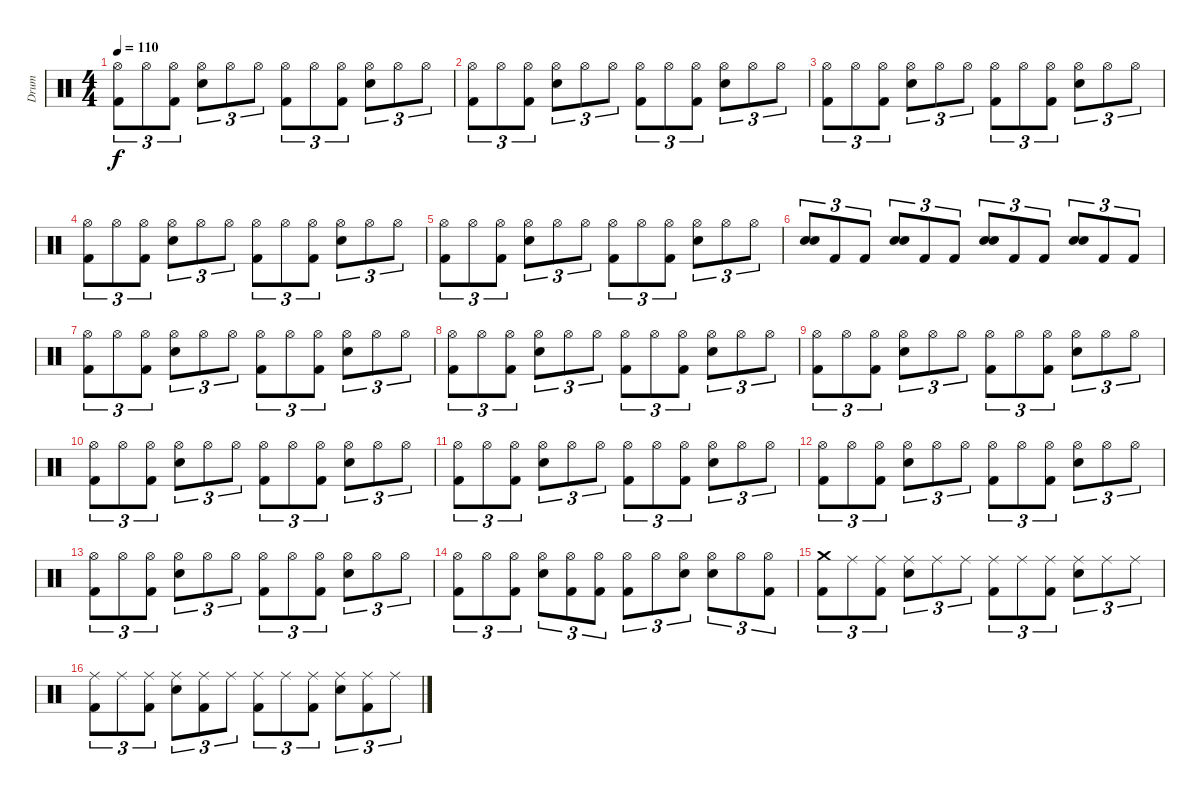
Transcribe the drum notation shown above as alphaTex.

\track ("Drum" "Drum") {instrument percussion}
\staff {score}
\articulation defaults
\ts (4 4)
\tempo 110
\clef neutral
\ks c
("Hi-Hat (open)" "Kick (hit) 2").8{tu (3 2) dy f} "Hi-Hat (open)".8{tu (3 2)} ("Hi-Hat (open)" "Kick (hit) 2").8{tu (3 2)} ("Hi-Hat (open)" "Electric Snare (hit)").8{tu (3 2)} "Hi-Hat (open)".8{tu (3 2)} "Hi-Hat (open)".8{tu (3 2)} ("Hi-Hat (open)" "Kick (hit) 2").8{tu (3 2)} "Hi-Hat (open)".8{tu (3 2)} ("Hi-Hat (open)" "Kick (hit) 2").8{tu (3 2)} ("Hi-Hat (open)" "Electric Snare (hit)").8{tu (3 2)} "Hi-Hat (open)".8{tu (3 2)} "Hi-Hat (open)".8{tu (3 2)} |
("Hi-Hat (open)" "Kick (hit) 2").8{tu (3 2)} "Hi-Hat (open)".8{tu (3 2)} ("Hi-Hat (open)" "Kick (hit) 2").8{tu (3 2)} ("Hi-Hat (open)" "Electric Snare (hit)").8{tu (3 2)} "Hi-Hat (open)".8{tu (3 2)} "Hi-Hat (open)".8{tu (3 2)} ("Hi-Hat (open)" "Kick (hit) 2").8{tu (3 2)} "Hi-Hat (open)".8{tu (3 2)} ("Hi-Hat (open)" "Kick (hit) 2").8{tu (3 2)} ("Hi-Hat (open)" "Electric Snare (hit)").8{tu (3 2)} "Hi-Hat (open)".8{tu (3 2)} "Hi-Hat (open)".8{tu (3 2)} |
("Hi-Hat (open)" "Kick (hit) 2").8{tu (3 2)} "Hi-Hat (open)".8{tu (3 2)} ("Hi-Hat (open)" "Kick (hit) 2").8{tu (3 2)} ("Hi-Hat (open)" "Electric Snare (hit)").8{tu (3 2)} "Hi-Hat (open)".8{tu (3 2)} "Hi-Hat (open)".8{tu (3 2)} ("Hi-Hat (open)" "Kick (hit) 2").8{tu (3 2)} "Hi-Hat (open)".8{tu (3 2)} ("Hi-Hat (open)" "Kick (hit) 2").8{tu (3 2)} ("Hi-Hat (open)" "Electric Snare (hit)").8{tu (3 2)} "Hi-Hat (open)".8{tu (3 2)} "Hi-Hat (open)".8{tu (3 2)} |
("Hi-Hat (open)" "Kick (hit) 2").8{tu (3 2)} "Hi-Hat (open)".8{tu (3 2)} ("Hi-Hat (open)" "Kick (hit) 2").8{tu (3 2)} ("Hi-Hat (open)" "Electric Snare (hit)").8{tu (3 2)} "Hi-Hat (open)".8{tu (3 2)} "Hi-Hat (open)".8{tu (3 2)} ("Hi-Hat (open)" "Kick (hit) 2").8{tu (3 2)} "Hi-Hat (open)".8{tu (3 2)} ("Hi-Hat (open)" "Kick (hit) 2").8{tu (3 2)} ("Hi-Hat (open)" "Electric Snare (hit)").8{tu (3 2)} "Hi-Hat (open)".8{tu (3 2)} "Hi-Hat (open)".8{tu (3 2)} |
("Hi-Hat (open)" "Kick (hit) 2").8{tu (3 2)} "Hi-Hat (open)".8{tu (3 2)} ("Hi-Hat (open)" "Kick (hit) 2").8{tu (3 2)} ("Hi-Hat (open)" "Electric Snare (hit)").8{tu (3 2)} "Hi-Hat (open)".8{tu (3 2)} "Hi-Hat (open)".8{tu (3 2)} ("Hi-Hat (open)" "Kick (hit) 2").8{tu (3 2)} "Hi-Hat (open)".8{tu (3 2)} ("Hi-Hat (open)" "Kick (hit) 2").8{tu (3 2)} ("Hi-Hat (open)" "Electric Snare (hit)").8{tu (3 2)} "Hi-Hat (open)".8{tu (3 2)} "Hi-Hat (open)".8{tu (3 2)} |
("Electric Snare (hit)" "Electric Snare (hit)").8{tu (3 2) bd 240} "Kick (hit) 2".8{tu (3 2)} "Kick (hit) 2".8{tu (3 2)} ("Electric Snare (hit)" "Electric Snare (hit)").8{tu (3 2) bd 240} "Kick (hit) 2".8{tu (3 2)} "Kick (hit) 2".8{tu (3 2)} ("Electric Snare (hit)" "Electric Snare (hit)").8{tu (3 2) bd 240} "Kick (hit) 2".8{tu (3 2)} "Kick (hit) 2".8{tu (3 2)} ("Electric Snare (hit)" "Electric Snare (hit)").8{tu (3 2) bd 240} "Kick (hit) 2".8{tu (3 2)} "Kick (hit) 2".8{tu (3 2)} |
("Hi-Hat (open)" "Kick (hit) 2").8{tu (3 2)} "Hi-Hat (open)".8{tu (3 2)} ("Hi-Hat (open)" "Kick (hit) 2").8{tu (3 2)} ("Hi-Hat (open)" "Electric Snare (hit)").8{tu (3 2)} "Hi-Hat (open)".8{tu (3 2)} "Hi-Hat (open)".8{tu (3 2)} ("Hi-Hat (open)" "Kick (hit) 2").8{tu (3 2)} "Hi-Hat (open)".8{tu (3 2)} ("Hi-Hat (open)" "Kick (hit) 2").8{tu (3 2)} ("Hi-Hat (open)" "Electric Snare (hit)").8{tu (3 2)} "Hi-Hat (open)".8{tu (3 2)} "Hi-Hat (open)".8{tu (3 2)} |
("Hi-Hat (open)" "Kick (hit) 2").8{tu (3 2)} "Hi-Hat (open)".8{tu (3 2)} ("Hi-Hat (open)" "Kick (hit) 2").8{tu (3 2)} ("Hi-Hat (open)" "Electric Snare (hit)").8{tu (3 2)} "Hi-Hat (open)".8{tu (3 2)} "Hi-Hat (open)".8{tu (3 2)} ("Hi-Hat (open)" "Kick (hit) 2").8{tu (3 2)} "Hi-Hat (open)".8{tu (3 2)} ("Hi-Hat (open)" "Kick (hit) 2").8{tu (3 2)} ("Hi-Hat (open)" "Electric Snare (hit)").8{tu (3 2)} "Hi-Hat (open)".8{tu (3 2)} "Hi-Hat (open)".8{tu (3 2)} |
("Hi-Hat (open)" "Kick (hit) 2").8{tu (3 2)} "Hi-Hat (open)".8{tu (3 2)} ("Hi-Hat (open)" "Kick (hit) 2").8{tu (3 2)} ("Hi-Hat (open)" "Electric Snare (hit)").8{tu (3 2)} "Hi-Hat (open)".8{tu (3 2)} "Hi-Hat (open)".8{tu (3 2)} ("Hi-Hat (open)" "Kick (hit) 2").8{tu (3 2)} "Hi-Hat (open)".8{tu (3 2)} ("Hi-Hat (open)" "Kick (hit) 2").8{tu (3 2)} ("Hi-Hat (open)" "Electric Snare (hit)").8{tu (3 2)} "Hi-Hat (open)".8{tu (3 2)} "Hi-Hat (open)".8{tu (3 2)} |
("Hi-Hat (open)" "Kick (hit) 2").8{tu (3 2)} "Hi-Hat (open)".8{tu (3 2)} ("Hi-Hat (open)" "Kick (hit) 2").8{tu (3 2)} ("Hi-Hat (open)" "Electric Snare (hit)").8{tu (3 2)} "Hi-Hat (open)".8{tu (3 2)} "Hi-Hat (open)".8{tu (3 2)} ("Hi-Hat (open)" "Kick (hit) 2").8{tu (3 2)} "Hi-Hat (open)".8{tu (3 2)} ("Hi-Hat (open)" "Kick (hit) 2").8{tu (3 2)} ("Hi-Hat (open)" "Electric Snare (hit)").8{tu (3 2)} "Hi-Hat (open)".8{tu (3 2)} "Hi-Hat (open)".8{tu (3 2)} |
("Hi-Hat (open)" "Kick (hit) 2").8{tu (3 2)} "Hi-Hat (open)".8{tu (3 2)} ("Hi-Hat (open)" "Kick (hit) 2").8{tu (3 2)} ("Hi-Hat (open)" "Electric Snare (hit)").8{tu (3 2)} "Hi-Hat (open)".8{tu (3 2)} "Hi-Hat (open)".8{tu (3 2)} ("Hi-Hat (open)" "Kick (hit) 2").8{tu (3 2)} "Hi-Hat (open)".8{tu (3 2)} ("Hi-Hat (open)" "Kick (hit) 2").8{tu (3 2)} ("Hi-Hat (open)" "Electric Snare (hit)").8{tu (3 2)} "Hi-Hat (open)".8{tu (3 2)} "Hi-Hat (open)".8{tu (3 2)} |
("Hi-Hat (open)" "Kick (hit) 2").8{tu (3 2)} "Hi-Hat (open)".8{tu (3 2)} ("Hi-Hat (open)" "Kick (hit) 2").8{tu (3 2)} ("Hi-Hat (open)" "Electric Snare (hit)").8{tu (3 2)} "Hi-Hat (open)".8{tu (3 2)} "Hi-Hat (open)".8{tu (3 2)} ("Hi-Hat (open)" "Kick (hit) 2").8{tu (3 2)} "Hi-Hat (open)".8{tu (3 2)} ("Hi-Hat (open)" "Kick (hit) 2").8{tu (3 2)} ("Hi-Hat (open)" "Electric Snare (hit)").8{tu (3 2)} "Hi-Hat (open)".8{tu (3 2)} "Hi-Hat (open)".8{tu (3 2)} |
("Hi-Hat (open)" "Kick (hit) 2").8{tu (3 2)} "Hi-Hat (open)".8{tu (3 2)} ("Hi-Hat (open)" "Kick (hit) 2").8{tu (3 2)} ("Hi-Hat (open)" "Electric Snare (hit)").8{tu (3 2)} "Hi-Hat (open)".8{tu (3 2)} "Hi-Hat (open)".8{tu (3 2)} ("Hi-Hat (open)" "Kick (hit) 2").8{tu (3 2)} "Hi-Hat (open)".8{tu (3 2)} ("Hi-Hat (open)" "Kick (hit) 2").8{tu (3 2)} ("Hi-Hat (open)" "Electric Snare (hit)").8{tu (3 2)} "Hi-Hat (open)".8{tu (3 2)} "Hi-Hat (open)".8{tu (3 2)} |
("Hi-Hat (open)" "Kick (hit) 2").8{tu (3 2)} "Hi-Hat (open)".8{tu (3 2)} ("Hi-Hat (open)" "Kick (hit) 2").8{tu (3 2)} ("Hi-Hat (open)" "Electric Snare (hit)").8{tu (3 2)} ("Hi-Hat (open)" "Kick (hit) 2").8{tu (3 2)} ("Hi-Hat (open)" "Kick (hit) 2").8{tu (3 2)} ("Hi-Hat (open)" "Kick (hit) 2").8{tu (3 2)} "Hi-Hat (open)".8{tu (3 2)} ("Hi-Hat (open)" "Electric Snare (hit)").8{tu (3 2)} ("Hi-Hat (open)" "Electric Snare (hit)").8{tu (3 2)} "Hi-Hat (open)".8{tu (3 2)} ("Hi-Hat (open)" "Kick (hit) 2").8{tu (3 2)} |
("Crash medium (hit)" "Kick (hit) 2").8{tu (3 2)} "Ride (middle)".8{tu (3 2)} ("Ride (middle)" "Kick (hit) 2").8{tu (3 2)} ("Ride (middle)" "Electric Snare (hit)").8{tu (3 2)} "Ride (middle)".8{tu (3 2)} "Ride (middle)".8{tu (3 2)} ("Ride (middle)" "Kick (hit) 2").8{tu (3 2)} "Ride (middle)".8{tu (3 2)} ("Ride (middle)" "Kick (hit) 2").8{tu (3 2)} ("Ride (middle)" "Electric Snare (hit)").8{tu (3 2)} "Ride (middle)".8{tu (3 2)} "Ride (middle)".8{tu (3 2)} |
("Ride (middle)" "Kick (hit) 2").8{tu (3 2)} "Ride (middle)".8{tu (3 2)} ("Ride (middle)" "Kick (hit) 2").8{tu (3 2)} ("Ride (middle)" "Electric Snare (hit)").8{tu (3 2)} ("Ride (middle)" "Kick (hit) 2").8{tu (3 2)} "Ride (middle)".8{tu (3 2)} ("Ride (middle)" "Kick (hit) 2").8{tu (3 2)} "Ride (middle)".8{tu (3 2)} ("Ride (middle)" "Kick (hit) 2").8{tu (3 2)} ("Ride (middle)" "Electric Snare (hit)").8{tu (3 2)} ("Ride (middle)" "Kick (hit) 2").8{tu (3 2)} "Ride (middle)".8{tu (3 2)}
